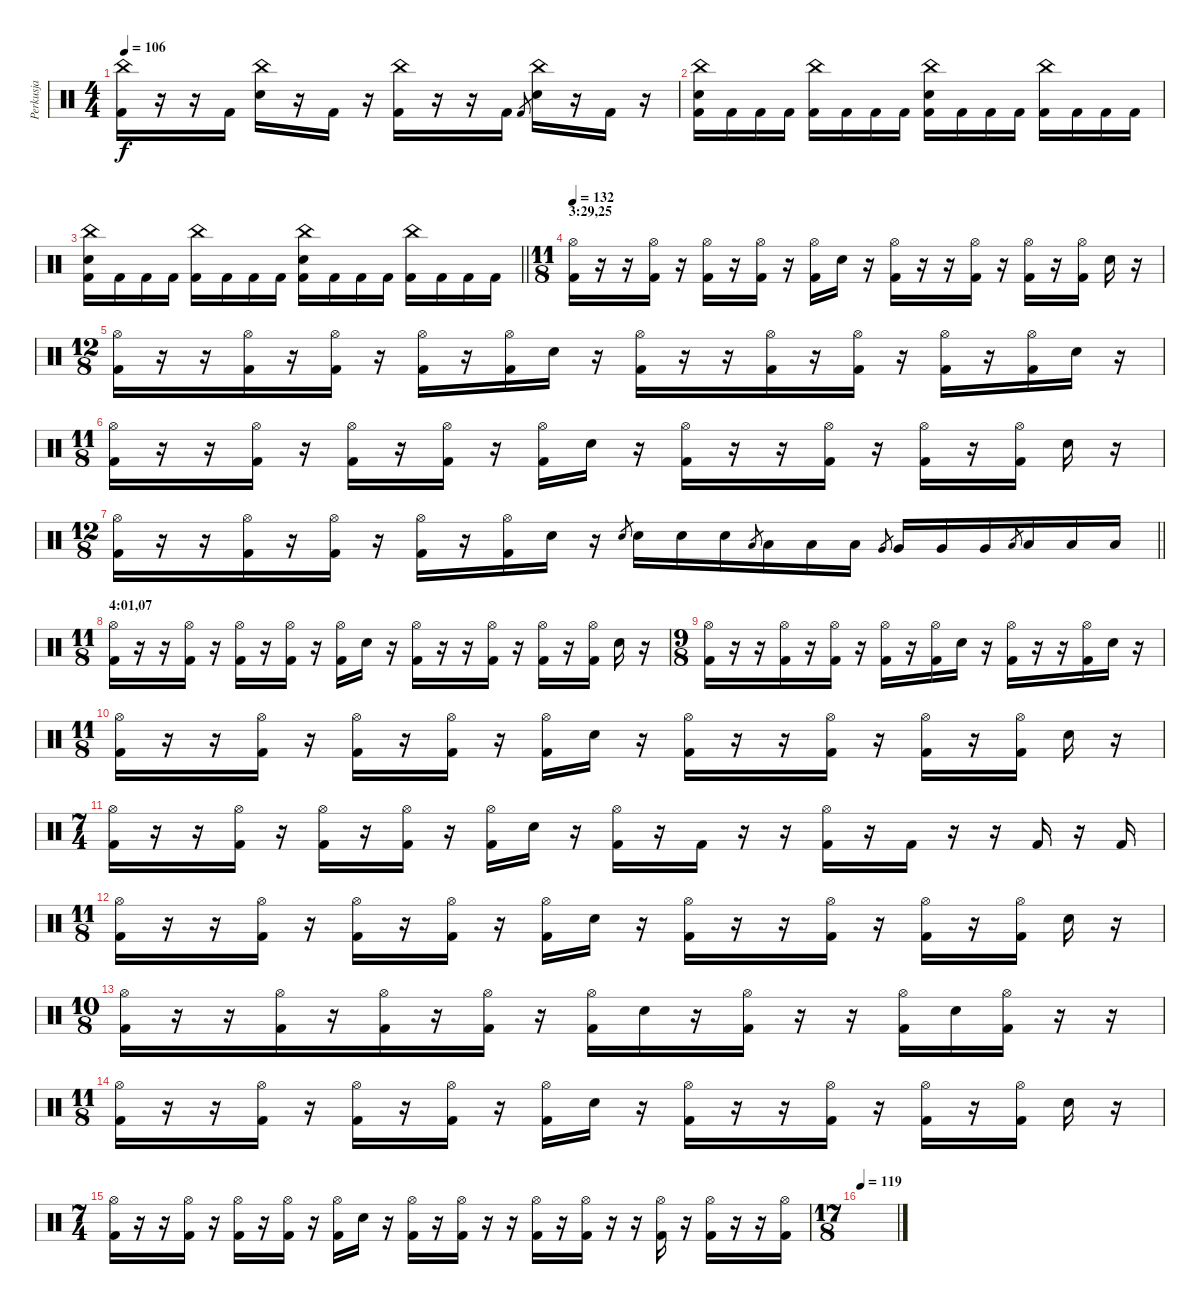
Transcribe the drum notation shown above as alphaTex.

\track ("Perkusja" "Perkusja") {instrument percussion}
\staff {score}
\articulation defaults
\ts (4 4)
\tempo 106
\clef neutral
\ks c
("China (hit)" "Kick (hit) 2").16{dy f} r.16 r.16 "Kick (hit) 2".16 ("China (hit)" "Electric Snare (hit)").16 r.16 "Kick (hit) 2".16 r.16 ("China (hit)" "Kick (hit) 2").16 r.16 r.16 "Kick (hit) 2".16 "Kick (hit) 2".8{gr} ("China (hit)" "Electric Snare (hit)").16 r.16 "Kick (hit) 2".16 r.16 |
("China (hit)" "Electric Snare (hit)" "Kick (hit) 2").16 "Kick (hit) 2".16 "Kick (hit) 2".16 "Kick (hit) 2".16 ("China (hit)" "Kick (hit) 2").16 "Kick (hit) 2".16 "Kick (hit) 2".16 "Kick (hit) 2".16 ("China (hit)" "Electric Snare (hit)" "Kick (hit) 2").16 "Kick (hit) 2".16 "Kick (hit) 2".16 "Kick (hit) 2".16 ("China (hit)" "Kick (hit) 2").16 "Kick (hit) 2".16 "Kick (hit) 2".16 "Kick (hit) 2".16 |
\barLineRight lightlight
("China (hit)" "Electric Snare (hit)" "Kick (hit) 2").16 "Kick (hit) 2".16 "Kick (hit) 2".16 "Kick (hit) 2".16 ("China (hit)" "Kick (hit) 2").16 "Kick (hit) 2".16 "Kick (hit) 2".16 "Kick (hit) 2".16 ("China (hit)" "Electric Snare (hit)" "Kick (hit) 2").16 "Kick (hit) 2".16 "Kick (hit) 2".16 "Kick (hit) 2".16 ("China (hit)" "Kick (hit) 2").16 "Kick (hit) 2".16 "Kick (hit) 2".16 "Kick (hit) 2".16 |
\ts (11 8)
\section ("" "3:29,25")
\tempo 132
("Hi-Hat (open)" "Kick (hit) 2").16 r.16 r.16 ("Hi-Hat (open)" "Kick (hit) 2").16 r.16 ("Hi-Hat (open)" "Kick (hit) 2").16 r.16 ("Hi-Hat (open)" "Kick (hit) 2").16 r.16 ("Hi-Hat (open)" "Kick (hit) 2").16 "Electric Snare (hit)".16 r.16 ("Hi-Hat (open)" "Kick (hit) 2").16 r.16 r.16 ("Hi-Hat (open)" "Kick (hit) 2").16 r.16 ("Hi-Hat (open)" "Kick (hit) 2").16 r.16 ("Hi-Hat (open)" "Kick (hit) 2").16 "Electric Snare (hit)".16 r.16 |
\ts (12 8)
("Hi-Hat (open)" "Kick (hit) 2").16 r.16 r.16 ("Hi-Hat (open)" "Kick (hit) 2").16 r.16 ("Hi-Hat (open)" "Kick (hit) 2").16 r.16 ("Hi-Hat (open)" "Kick (hit) 2").16 r.16 ("Hi-Hat (open)" "Kick (hit) 2").16 "Electric Snare (hit)".16 r.16 ("Hi-Hat (open)" "Kick (hit) 2").16 r.16 r.16 ("Hi-Hat (open)" "Kick (hit) 2").16 r.16 ("Hi-Hat (open)" "Kick (hit) 2").16 r.16 ("Hi-Hat (open)" "Kick (hit) 2").16 r.16 ("Hi-Hat (open)" "Kick (hit) 2").16 "Electric Snare (hit)".16 r.16 |
\ts (11 8)
("Hi-Hat (open)" "Kick (hit) 2").16 r.16 r.16 ("Hi-Hat (open)" "Kick (hit) 2").16 r.16 ("Hi-Hat (open)" "Kick (hit) 2").16 r.16 ("Hi-Hat (open)" "Kick (hit) 2").16 r.16 ("Hi-Hat (open)" "Kick (hit) 2").16 "Electric Snare (hit)".16 r.16 ("Hi-Hat (open)" "Kick (hit) 2").16 r.16 r.16 ("Hi-Hat (open)" "Kick (hit) 2").16 r.16 ("Hi-Hat (open)" "Kick (hit) 2").16 r.16 ("Hi-Hat (open)" "Kick (hit) 2").16 "Electric Snare (hit)".16 r.16 |
\ts (12 8)
\barLineRight lightlight
("Hi-Hat (open)" "Kick (hit) 2").16 r.16 r.16 ("Hi-Hat (open)" "Kick (hit) 2").16 r.16 ("Hi-Hat (open)" "Kick (hit) 2").16 r.16 ("Hi-Hat (open)" "Kick (hit) 2").16 r.16 ("Hi-Hat (open)" "Kick (hit) 2").16 "Electric Snare (hit)".16 r.16 "Electric Snare (hit)".8{gr} "Electric Snare (hit)".16 "Electric Snare (hit)".16 "Electric Snare (hit)".16 "Low Tom (hit)".8{gr} "Low Tom (hit)".16 "Low Tom (hit)".16 "Low Tom (hit)".16 "Very Low Tom (hit)".8{gr} "Very Low Tom (hit)".16 "Very Low Tom (hit)".16 "Very Low Tom (hit)".16 "Low Floor Tom (hit)".8{gr} "Low Floor Tom (hit)".16 "Low Floor Tom (hit)".16 "Low Floor Tom (hit)".16 |
\ts (11 8)
\section ("" "4:01,07")
("Hi-Hat (open)" "Kick (hit) 2").16 r.16 r.16 ("Hi-Hat (open)" "Kick (hit) 2").16 r.16 ("Hi-Hat (open)" "Kick (hit) 2").16 r.16 ("Hi-Hat (open)" "Kick (hit) 2").16 r.16 ("Hi-Hat (open)" "Kick (hit) 2").16 "Electric Snare (hit)".16 r.16 ("Hi-Hat (open)" "Kick (hit) 2").16 r.16 r.16 ("Hi-Hat (open)" "Kick (hit) 2").16 r.16 ("Hi-Hat (open)" "Kick (hit) 2").16 r.16 ("Hi-Hat (open)" "Kick (hit) 2").16 "Electric Snare (hit)".16 r.16 |
\ts (9 8)
("Hi-Hat (open)" "Kick (hit) 2").16 r.16 r.16 ("Hi-Hat (open)" "Kick (hit) 2").16 r.16 ("Hi-Hat (open)" "Kick (hit) 2").16 r.16 ("Hi-Hat (open)" "Kick (hit) 2").16 r.16 ("Hi-Hat (open)" "Kick (hit) 2").16 "Electric Snare (hit)".16 r.16 ("Hi-Hat (open)" "Kick (hit) 2").16 r.16 r.16 ("Hi-Hat (open)" "Kick (hit) 2").16 "Electric Snare (hit)".16 r.16 |
\ts (11 8)
("Hi-Hat (open)" "Kick (hit) 2").16 r.16 r.16 ("Hi-Hat (open)" "Kick (hit) 2").16 r.16 ("Hi-Hat (open)" "Kick (hit) 2").16 r.16 ("Hi-Hat (open)" "Kick (hit) 2").16 r.16 ("Hi-Hat (open)" "Kick (hit) 2").16 "Electric Snare (hit)".16 r.16 ("Hi-Hat (open)" "Kick (hit) 2").16 r.16 r.16 ("Hi-Hat (open)" "Kick (hit) 2").16 r.16 ("Hi-Hat (open)" "Kick (hit) 2").16 r.16 ("Hi-Hat (open)" "Kick (hit) 2").16 "Electric Snare (hit)".16 r.16 |
\ts (7 4)
("Hi-Hat (open)" "Kick (hit) 2").16 r.16 r.16 ("Hi-Hat (open)" "Kick (hit) 2").16 r.16 ("Hi-Hat (open)" "Kick (hit) 2").16 r.16 ("Hi-Hat (open)" "Kick (hit) 2").16 r.16 ("Hi-Hat (open)" "Kick (hit) 2").16 "Electric Snare (hit)".16 r.16 ("Hi-Hat (open)" "Kick (hit) 2").16 r.16 "Kick (hit) 2".16 r.16 r.16 ("Hi-Hat (open)" "Kick (hit) 2").16 r.16 "Kick (hit) 2".16 r.16 r.16 "Kick (hit) 2".16 r.16 "Kick (hit) 2".16 |
\ts (11 8)
("Hi-Hat (open)" "Kick (hit) 2").16 r.16 r.16 ("Hi-Hat (open)" "Kick (hit) 2").16 r.16 ("Hi-Hat (open)" "Kick (hit) 2").16 r.16 ("Hi-Hat (open)" "Kick (hit) 2").16 r.16 ("Hi-Hat (open)" "Kick (hit) 2").16 "Electric Snare (hit)".16 r.16 ("Hi-Hat (open)" "Kick (hit) 2").16 r.16 r.16 ("Hi-Hat (open)" "Kick (hit) 2").16 r.16 ("Hi-Hat (open)" "Kick (hit) 2").16 r.16 ("Hi-Hat (open)" "Kick (hit) 2").16 "Electric Snare (hit)".16 r.16 |
\ts (10 8)
("Hi-Hat (open)" "Kick (hit) 2").16 r.16 r.16 ("Hi-Hat (open)" "Kick (hit) 2").16 r.16 ("Hi-Hat (open)" "Kick (hit) 2").16 r.16 ("Hi-Hat (open)" "Kick (hit) 2").16 r.16 ("Hi-Hat (open)" "Kick (hit) 2").16 "Electric Snare (hit)".16 r.16 ("Hi-Hat (open)" "Kick (hit) 2").16 r.16 r.16 ("Hi-Hat (open)" "Kick (hit) 2").16 "Electric Snare (hit)".16 ("Hi-Hat (open)" "Kick (hit) 2").16 r.16 r.16 |
\ts (11 8)
("Hi-Hat (open)" "Kick (hit) 2").16 r.16 r.16 ("Hi-Hat (open)" "Kick (hit) 2").16 r.16 ("Hi-Hat (open)" "Kick (hit) 2").16 r.16 ("Hi-Hat (open)" "Kick (hit) 2").16 r.16 ("Hi-Hat (open)" "Kick (hit) 2").16 "Electric Snare (hit)".16 r.16 ("Hi-Hat (open)" "Kick (hit) 2").16 r.16 r.16 ("Hi-Hat (open)" "Kick (hit) 2").16 r.16 ("Hi-Hat (open)" "Kick (hit) 2").16 r.16 ("Hi-Hat (open)" "Kick (hit) 2").16 "Electric Snare (hit)".16 r.16 |
\ts (7 4)
("Hi-Hat (open)" "Kick (hit) 2").16 r.16 r.16 ("Hi-Hat (open)" "Kick (hit) 2").16 r.16 ("Hi-Hat (open)" "Kick (hit) 2").16 r.16 ("Hi-Hat (open)" "Kick (hit) 2").16 r.16 ("Hi-Hat (open)" "Kick (hit) 2").16 "Electric Snare (hit)".16 r.16 ("Hi-Hat (open)" "Kick (hit) 2").16 r.16 ("Hi-Hat (open)" "Kick (hit) 2").16 r.16 r.16 ("Hi-Hat (open)" "Kick (hit) 2").16 r.16 ("Hi-Hat (open)" "Kick (hit) 2").16 r.16 r.16 ("Hi-Hat (open)" "Kick (hit) 2").16 r.16 ("Hi-Hat (open)" "Kick (hit) 2").16 r.16 r.16 ("Hi-Hat (open)" "Kick (hit) 2").16 |
\ts (17 8)
\tempo 119
